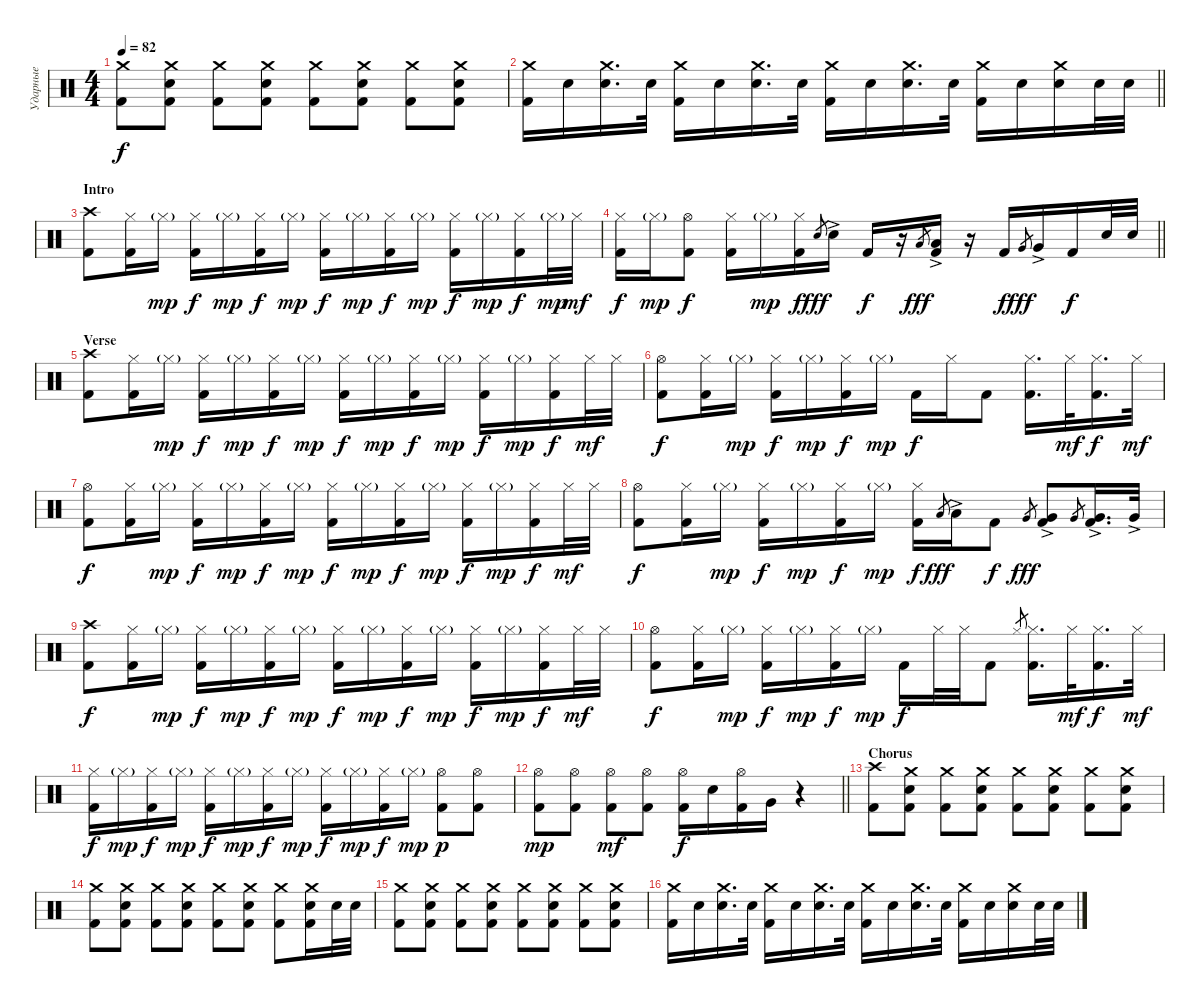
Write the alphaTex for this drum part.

\track ("Ударные" "Ударные") {instrument percussion}
\staff {score}
\articulation defaults
\ts (4 4)
\tempo 82
\clef neutral
\ks c
("Crash medium (hit)" "Kick (hit) 2").8{dy f} ("Crash medium (hit)" "Electric Snare (hit)" "Kick (hit) 2").8 ("Crash medium (hit)" "Kick (hit) 2").8 ("Crash medium (hit)" "Electric Snare (hit)" "Kick (hit) 2").8 ("Crash medium (hit)" "Kick (hit) 2").8 ("Crash medium (hit)" "Electric Snare (hit)" "Kick (hit) 2").8 ("Crash medium (hit)" "Kick (hit) 2").8 ("Crash medium (hit)" "Electric Snare (hit)" "Kick (hit) 2").8 |
\barLineRight lightlight
("Crash medium (hit)" "Kick (hit) 2").16 "Electric Snare (hit)".16 ("Crash medium (hit)" "Electric Snare (hit)").16{d} "Electric Snare (hit)".32 ("Crash medium (hit)" "Kick (hit) 2").16 "Electric Snare (hit)".16 ("Crash medium (hit)" "Electric Snare (hit)").16{d} "Electric Snare (hit)".32 ("Crash medium (hit)" "Kick (hit) 2").16 "Electric Snare (hit)".16 ("Crash medium (hit)" "Electric Snare (hit)").16{d} "Electric Snare (hit)".32 ("Crash medium (hit)" "Kick (hit) 2").16 "Electric Snare (hit)".16 ("Crash medium (hit)" "Electric Snare (hit)").16 "Electric Snare (hit)".32 "Electric Snare (hit)".32 |
\section ("" "Intro")
("Crash high (hit)" "Kick (hit) 2").8 ("Hi-Hat (closed)" "Kick (hit) 2").16 "Hi-Hat (closed)"{g}.16{dy mp} ("Hi-Hat (closed)" "Kick (hit) 2").16{dy f} "Hi-Hat (closed)"{g}.16{dy mp} ("Hi-Hat (closed)" "Kick (hit) 2").16{dy f} "Hi-Hat (closed)"{g}.16{dy mp} ("Hi-Hat (closed)" "Kick (hit) 2").16{dy f} "Hi-Hat (closed)"{g}.16{dy mp} ("Hi-Hat (closed)" "Kick (hit) 2").16{dy f} "Hi-Hat (closed)"{g}.16{dy mp} ("Hi-Hat (closed)" "Kick (hit) 2").16{dy f} "Hi-Hat (closed)"{g}.16{dy mp} ("Hi-Hat (closed)" "Kick (hit) 2").16{dy f} "Hi-Hat (closed)"{g}.32{dy mp} "Hi-Hat (closed)".32{dy mf} |
\barLineRight lightlight
("Hi-Hat (closed)" "Kick (hit) 2").16{dy f} "Hi-Hat (closed)"{g}.16{dy mp} ("Hi-Hat (open)" "Kick (hit) 2").8{dy f} ("Hi-Hat (closed)" "Kick (hit) 2").16 "Hi-Hat (closed)"{g}.16{dy mp} ("Hi-Hat (closed)" "Kick (hit) 2").16{dy f} "Electric Snare (hit)".8{gr dy fff} "Electric Snare (hit)"{ac}.16 "Kick (hit) 2".16{dy f} r.16 "Low Tom (hit)".8{gr dy fff} ("Low Tom (hit)"{ac} "Kick (hit) 2").16 r.16 "Kick (hit) 2".16{dy f} "Very Low Tom (hit)".8{gr dy fff} "Very Low Tom (hit)"{ac}.16 "Kick (hit) 2".16{dy f} "Electric Snare (hit)".32 "Electric Snare (hit)".32 |
\section ("" "Verse")
("Crash high (hit)" "Kick (hit) 2").8 ("Hi-Hat (closed)" "Kick (hit) 2").16 "Hi-Hat (closed)"{g}.16{dy mp} ("Hi-Hat (closed)" "Kick (hit) 2").16{dy f} "Hi-Hat (closed)"{g}.16{dy mp} ("Hi-Hat (closed)" "Kick (hit) 2").16{dy f} "Hi-Hat (closed)"{g}.16{dy mp} ("Hi-Hat (closed)" "Kick (hit) 2").16{dy f} "Hi-Hat (closed)"{g}.16{dy mp} ("Hi-Hat (closed)" "Kick (hit) 2").16{dy f} "Hi-Hat (closed)"{g}.16{dy mp} ("Hi-Hat (closed)" "Kick (hit) 2").16{dy f} "Hi-Hat (closed)"{g}.16{dy mp} ("Hi-Hat (closed)" "Kick (hit) 2").16{dy f} "Hi-Hat (closed)".32{dy mf} "Hi-Hat (closed)".32 |
("Hi-Hat (open)" "Kick (hit) 2").8{dy f} ("Hi-Hat (closed)" "Kick (hit) 2").16 "Hi-Hat (closed)"{g}.16{dy mp} ("Hi-Hat (closed)" "Kick (hit) 2").16{dy f} "Hi-Hat (closed)"{g}.16{dy mp} ("Hi-Hat (closed)" "Kick (hit) 2").16{dy f} "Hi-Hat (closed)"{g}.16{dy mp} "Kick (hit) 2".16{dy f} "Hi-Hat (closed)".16 "Kick (hit) 2".8 ("Hi-Hat (closed)" "Kick (hit) 2").16{d} "Hi-Hat (closed)".32{dy mf} ("Hi-Hat (closed)" "Kick (hit) 2").16{d dy f} "Hi-Hat (closed)".32{dy mf} |
("Hi-Hat (open)" "Kick (hit) 2").8{dy f} ("Hi-Hat (closed)" "Kick (hit) 2").16 "Hi-Hat (closed)"{g}.16{dy mp} ("Hi-Hat (closed)" "Kick (hit) 2").16{dy f} "Hi-Hat (closed)"{g}.16{dy mp} ("Hi-Hat (closed)" "Kick (hit) 2").16{dy f} "Hi-Hat (closed)"{g}.16{dy mp} ("Hi-Hat (closed)" "Kick (hit) 2").16{dy f} "Hi-Hat (closed)"{g}.16{dy mp} ("Hi-Hat (closed)" "Kick (hit) 2").16{dy f} "Hi-Hat (closed)"{g}.16{dy mp} ("Hi-Hat (closed)" "Kick (hit) 2").16{dy f} "Hi-Hat (closed)"{g}.16{dy mp} ("Hi-Hat (closed)" "Kick (hit) 2").16{dy f} "Hi-Hat (closed)".32{dy mf} "Hi-Hat (closed)".32 |
("Hi-Hat (open)" "Kick (hit) 2").8{dy f} ("Hi-Hat (closed)" "Kick (hit) 2").16 "Hi-Hat (closed)"{g}.16{dy mp} ("Hi-Hat (closed)" "Kick (hit) 2").16{dy f} "Hi-Hat (closed)"{g}.16{dy mp} ("Hi-Hat (closed)" "Kick (hit) 2").16{dy f} "Hi-Hat (closed)"{g}.16{dy mp} ("Hi-Hat (closed)" "Kick (hit) 2").16{dy f} "Low Tom (hit)".8{gr dy fff} "Low Tom (hit)"{ac}.16 "Kick (hit) 2".8{dy f} "Very Low Tom (hit)".8{gr dy fff} ("Very Low Tom (hit)"{ac} "Kick (hit) 2").8 "Very Low Tom (hit)".8{gr} ("Very Low Tom (hit)"{ac} "Kick (hit) 2").16{d} "Very Low Tom (hit)"{ac}.32 |
("Crash high (hit)" "Kick (hit) 2").8{dy f} ("Hi-Hat (closed)" "Kick (hit) 2").16 "Hi-Hat (closed)"{g}.16{dy mp} ("Hi-Hat (closed)" "Kick (hit) 2").16{dy f} "Hi-Hat (closed)"{g}.16{dy mp} ("Hi-Hat (closed)" "Kick (hit) 2").16{dy f} "Hi-Hat (closed)"{g}.16{dy mp} ("Hi-Hat (closed)" "Kick (hit) 2").16{dy f} "Hi-Hat (closed)"{g}.16{dy mp} ("Hi-Hat (closed)" "Kick (hit) 2").16{dy f} "Hi-Hat (closed)"{g}.16{dy mp} ("Hi-Hat (closed)" "Kick (hit) 2").16{dy f} "Hi-Hat (closed)"{g}.16{dy mp} ("Hi-Hat (closed)" "Kick (hit) 2").16{dy f} "Hi-Hat (closed)".32{dy mf} "Hi-Hat (closed)".32 |
("Hi-Hat (open)" "Kick (hit) 2").8{dy f} ("Hi-Hat (closed)" "Kick (hit) 2").16 "Hi-Hat (closed)"{g}.16{dy mp} ("Hi-Hat (closed)" "Kick (hit) 2").16{dy f} "Hi-Hat (closed)"{g}.16{dy mp} ("Hi-Hat (closed)" "Kick (hit) 2").16{dy f} "Hi-Hat (closed)"{g}.16{dy mp} "Kick (hit) 2".16{dy f} "Hi-Hat (closed)".32 "Hi-Hat (closed)".32 "Kick (hit) 2".8 "Hi-Hat (closed)".8{gr} ("Hi-Hat (closed)" "Kick (hit) 2").16{d} "Hi-Hat (closed)".32{dy mf} ("Hi-Hat (closed)" "Kick (hit) 2").16{d dy f} "Hi-Hat (closed)".32{dy mf} |
("Hi-Hat (closed)" "Kick (hit) 2").16{dy f} "Hi-Hat (closed)"{g}.16{dy mp} ("Hi-Hat (closed)" "Kick (hit) 2").16{dy f} "Hi-Hat (closed)"{g}.16{dy mp} ("Hi-Hat (closed)" "Kick (hit) 2").16{dy f} "Hi-Hat (closed)"{g}.16{dy mp} ("Hi-Hat (closed)" "Kick (hit) 2").16{dy f} "Hi-Hat (closed)"{g}.16{dy mp} ("Hi-Hat (closed)" "Kick (hit) 2").16{dy f} "Hi-Hat (closed)"{g}.16{dy mp} ("Hi-Hat (closed)" "Kick (hit) 2").16{dy f} "Hi-Hat (closed)"{g}.16{dy mp} ("Hi-Hat (open)" "Kick (hit) 2").8{dy p} ("Hi-Hat (open)" "Kick (hit) 2").8 |
\barLineRight lightlight
("Hi-Hat (open)" "Kick (hit) 2").8{dy mp} ("Hi-Hat (open)" "Kick (hit) 2").8 ("Hi-Hat (open)" "Kick (hit) 2").8{dy mf} ("Hi-Hat (open)" "Kick (hit) 2").8 ("Hi-Hat (open)" "Kick (hit) 2").16{dy f} "Electric Snare (hit)".16 ("Hi-Hat (open)" "Kick (hit) 2").16 "Very Low Tom (hit)".16 r.4 |
\section ("" "Сhorus")
("Crash high (hit)" "Kick (hit) 2").8 ("Crash medium (hit)" "Electric Snare (hit)" "Kick (hit) 2").8 ("Crash medium (hit)" "Kick (hit) 2").8 ("Crash medium (hit)" "Electric Snare (hit)" "Kick (hit) 2").8 ("Crash medium (hit)" "Kick (hit) 2").8 ("Crash medium (hit)" "Electric Snare (hit)" "Kick (hit) 2").8 ("Crash medium (hit)" "Kick (hit) 2").8 ("Crash medium (hit)" "Electric Snare (hit)" "Kick (hit) 2").8 |
("Crash medium (hit)" "Kick (hit) 2").8 ("Crash medium (hit)" "Electric Snare (hit)" "Kick (hit) 2").8 ("Crash medium (hit)" "Kick (hit) 2").8 ("Crash medium (hit)" "Electric Snare (hit)" "Kick (hit) 2").8 ("Crash medium (hit)" "Kick (hit) 2").8 ("Crash medium (hit)" "Electric Snare (hit)" "Kick (hit) 2").8 ("Crash medium (hit)" "Kick (hit) 2").8 ("Crash medium (hit)" "Electric Snare (hit)" "Kick (hit) 2").16 "Electric Snare (hit)".32 "Electric Snare (hit)".32 |
("Crash medium (hit)" "Kick (hit) 2").8 ("Crash medium (hit)" "Electric Snare (hit)" "Kick (hit) 2").8 ("Crash medium (hit)" "Kick (hit) 2").8 ("Crash medium (hit)" "Electric Snare (hit)" "Kick (hit) 2").8 ("Crash medium (hit)" "Kick (hit) 2").8 ("Crash medium (hit)" "Electric Snare (hit)" "Kick (hit) 2").8 ("Crash medium (hit)" "Kick (hit) 2").8 ("Crash medium (hit)" "Electric Snare (hit)" "Kick (hit) 2").8 |
("Crash medium (hit)" "Kick (hit) 2").16 "Electric Snare (hit)".16 ("Crash medium (hit)" "Electric Snare (hit)").16{d} "Electric Snare (hit)".32 ("Crash medium (hit)" "Kick (hit) 2").16 "Electric Snare (hit)".16 ("Crash medium (hit)" "Electric Snare (hit)").16{d} "Electric Snare (hit)".32 ("Crash medium (hit)" "Kick (hit) 2").16 "Electric Snare (hit)".16 ("Crash medium (hit)" "Electric Snare (hit)").16{d} "Electric Snare (hit)".32 ("Crash medium (hit)" "Kick (hit) 2").16 "Electric Snare (hit)".16 ("Crash medium (hit)" "Electric Snare (hit)").16 "Electric Snare (hit)".32 "Electric Snare (hit)".32
